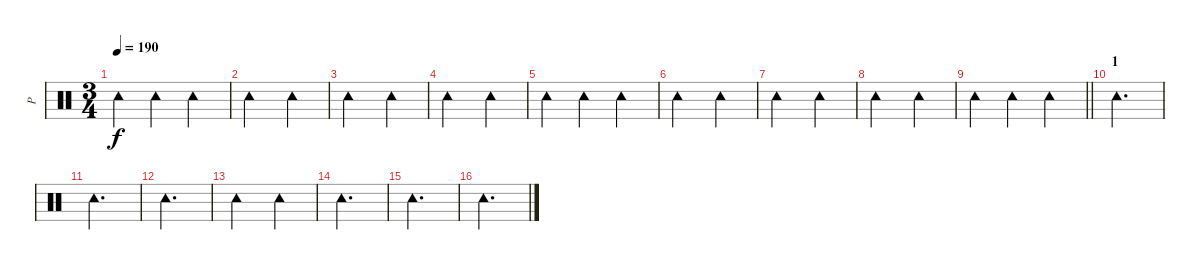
\track ("P" "P") {instrument percussion}
\staff {score}
\articulation defaults
\ts (3 4)
\tempo 190
\clef neutral
\ks c "Tambourine (hit)".4{dy f} "Tambourine (hit)".4 "Tambourine (hit)".4
|
"Tambourine (hit)".2 "Tambourine (hit)".4 |
"Tambourine (hit)".2 "Tambourine (hit)".4 |
"Tambourine (hit)".2 "Tambourine (hit)".4 |
"Tambourine (hit)".4 "Tambourine (hit)".4 "Tambourine (hit)".4 |
"Tambourine (hit)".2 "Tambourine (hit)".4 |
"Tambourine (hit)".2 "Tambourine (hit)".4 |
"Tambourine (hit)".2 "Tambourine (hit)".4 |
\barLineRight lightlight "Tambourine (hit)".4 "Tambourine (hit)".4 "Tambourine (hit)".4
|
\section ("" "1")
"Tambourine (hit)".2{d} |
"Tambourine (hit)".2{d} |
"Tambourine (hit)".2{d} |
"Tambourine (hit)".2 "Tambourine (hit)".4 |
"Tambourine (hit)".2{d} |
"Tambourine (hit)".2{d} |
"Tambourine (hit)".2{d}
